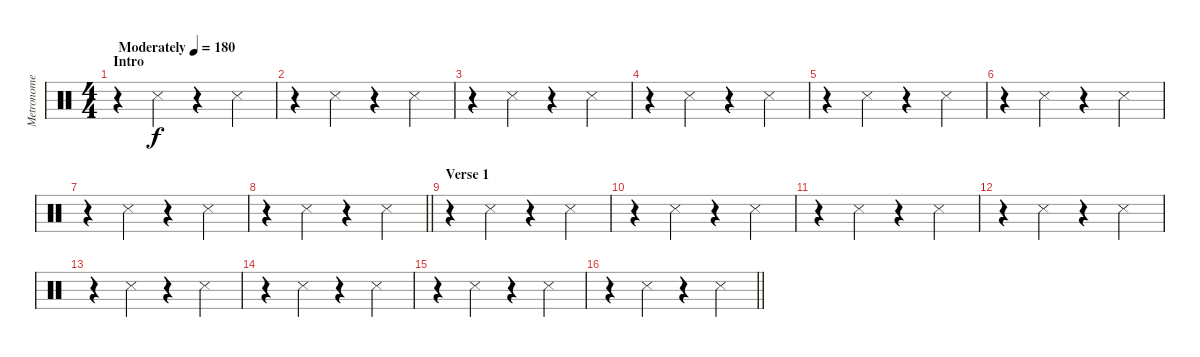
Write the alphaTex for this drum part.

\track ("Metronome" "Metronome") {instrument percussion}
\staff {score}
\articulation defaults
\ts (4 4)
\section ("" "Intro")
\tempo (180 "Moderately")
\clef neutral
\ks c
r.4{dy f} "Metronome (hit)".4 r.4 "Metronome (hit)".4 |
r.4 "Metronome (hit)".4 r.4 "Metronome (hit)".4 |
r.4 "Metronome (hit)".4 r.4 "Metronome (hit)".4 |
r.4 "Metronome (hit)".4 r.4 "Metronome (hit)".4 |
r.4 "Metronome (hit)".4 r.4 "Metronome (hit)".4 |
r.4 "Metronome (hit)".4 r.4 "Metronome (hit)".4 |
r.4 "Metronome (hit)".4 r.4 "Metronome (hit)".4 |
\barLineRight lightlight
r.4 "Metronome (hit)".4 r.4 "Metronome (hit)".4 |
\section ("" "Verse 1")
r.4 "Metronome (hit)".4 r.4 "Metronome (hit)".4 |
r.4 "Metronome (hit)".4 r.4 "Metronome (hit)".4 |
r.4 "Metronome (hit)".4 r.4 "Metronome (hit)".4 |
r.4 "Metronome (hit)".4 r.4 "Metronome (hit)".4 |
r.4 "Metronome (hit)".4 r.4 "Metronome (hit)".4 |
r.4 "Metronome (hit)".4 r.4 "Metronome (hit)".4 |
r.4 "Metronome (hit)".4 r.4 "Metronome (hit)".4 |
\barLineRight lightlight
r.4 "Metronome (hit)".4 r.4 "Metronome (hit)".4
